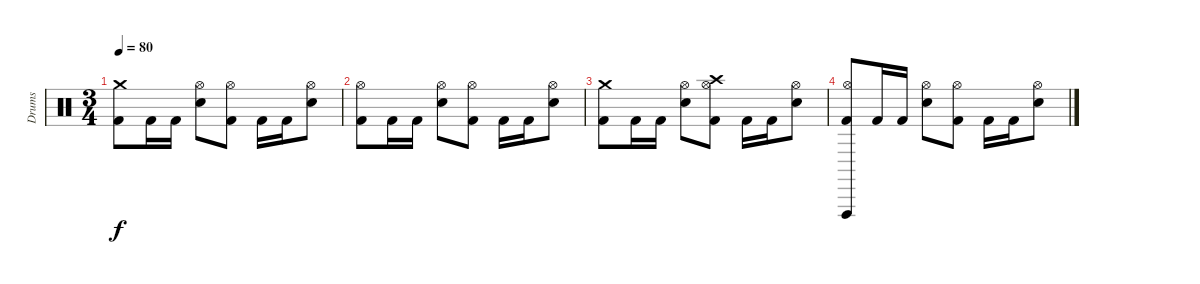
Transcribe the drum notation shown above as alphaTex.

\track ("Drums" "Drums") {instrument percussion}
\staff {score}
\articulation defaults
\ts (3 4)
\tempo 80
\clef neutral
\ks c
("Kick (hit) 2" "Crash medium (hit)").8{dy f} "Kick (hit) 2".16 "Kick (hit) 2".16 ("Electric Snare (hit)" "Hi-Hat (open)").8 ("Kick (hit) 2" "Hi-Hat (open)").8 "Kick (hit) 2".16 "Kick (hit) 2".16 ("Electric Snare (hit)" "Hi-Hat (open)").8 |
("Kick (hit) 2" "Hi-Hat (open)").8 "Kick (hit) 2".16 "Kick (hit) 2".16 ("Electric Snare (hit)" "Hi-Hat (open)").8 ("Kick (hit) 2" "Hi-Hat (open)").8 "Kick (hit) 2".16 "Kick (hit) 2".16 ("Electric Snare (hit)" "Hi-Hat (open)").8 |
("Kick (hit) 2" "Crash medium (hit)").8 "Kick (hit) 2".16 "Kick (hit) 2".16 ("Electric Snare (hit)" "Hi-Hat (open)").8 ("Kick (hit) 2" "Hi-Hat (open)" "Crash high (hit)").8 "Kick (hit) 2".16 "Kick (hit) 2".16 ("Electric Snare (hit)" "Hi-Hat (open)").8 |
("Kick (hit) 2" "Hi-Hat (open)" "Vibraslap (hit)").8 "Kick (hit) 2".16 "Kick (hit) 2".16 ("Electric Snare (hit)" "Hi-Hat (open)").8 ("Kick (hit) 2" "Hi-Hat (open)").8 "Kick (hit) 2".16 "Kick (hit) 2".16 ("Electric Snare (hit)" "Hi-Hat (open)").8
